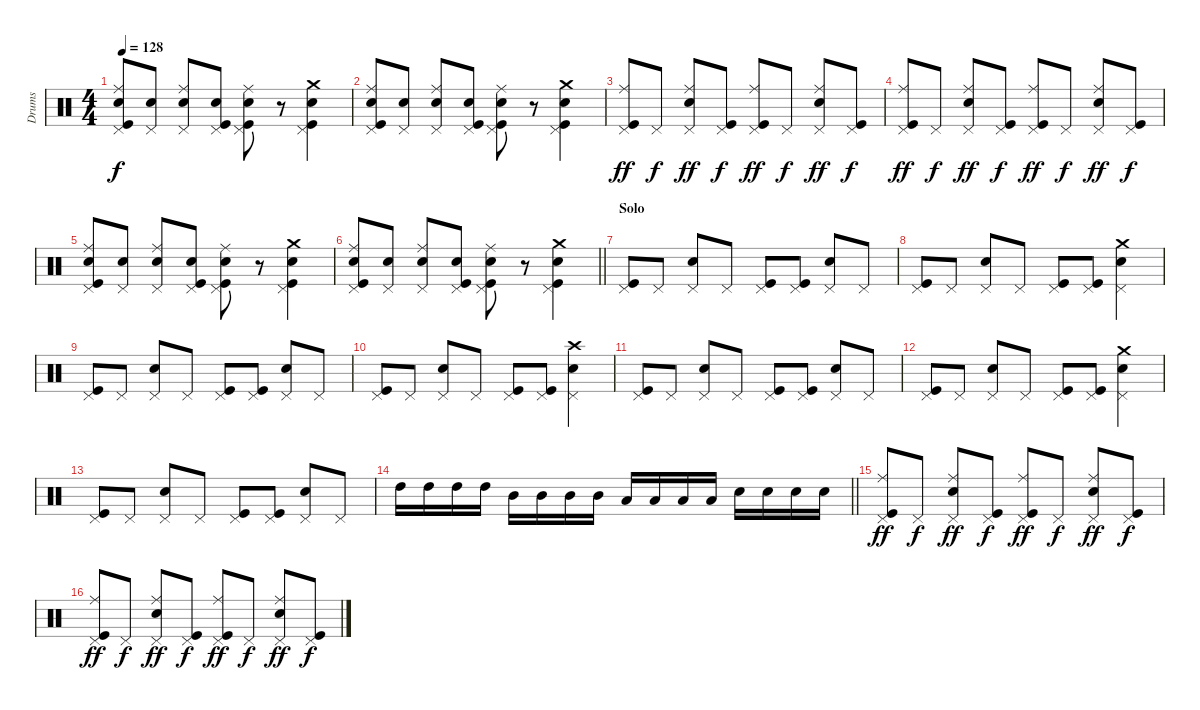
\track ("Drums" "Drums") {instrument percussion}
\staff {score}
\articulation defaults
\ts (4 4)
\tempo 128
\clef neutral
\ks c
("Ride (middle)" "Pedal Hi-Hat (hit)" "Snare (hit) 2" "Kick (hit)").8{dy f} ("Pedal Hi-Hat (hit)" "Snare (hit) 2").8 ("Ride (middle)" "Pedal Hi-Hat (hit)" "Snare (hit) 2").8 ("Pedal Hi-Hat (hit)" "Snare (hit) 2" "Kick (hit)").8 ("Ride (middle)" "Pedal Hi-Hat (hit)" "Snare (hit) 2" "Kick (hit)").8 r.8 ("Crash medium (hit)" "Pedal Hi-Hat (hit)" "Snare (hit) 2" "Kick (hit)").4 |
("Ride (middle)" "Pedal Hi-Hat (hit)" "Snare (hit) 2" "Kick (hit)").8 ("Pedal Hi-Hat (hit)" "Snare (hit) 2").8 ("Ride (middle)" "Pedal Hi-Hat (hit)" "Snare (hit) 2").8 ("Pedal Hi-Hat (hit)" "Snare (hit) 2" "Kick (hit)").8 ("Ride (middle)" "Pedal Hi-Hat (hit)" "Snare (hit) 2" "Kick (hit)").8 r.8 ("Crash medium (hit)" "Pedal Hi-Hat (hit)" "Snare (hit) 2" "Kick (hit)").4 |
("Ride (middle)" "Pedal Hi-Hat (hit)" "Kick (hit)").8{dy ff} "Pedal Hi-Hat (hit)".8{dy f} ("Ride (middle)" "Snare (hit) 2" "Pedal Hi-Hat (hit)").8{dy ff} ("Pedal Hi-Hat (hit)" "Kick (hit)").8{dy f} ("Ride (middle)" "Pedal Hi-Hat (hit)" "Kick (hit)").8{dy ff} "Pedal Hi-Hat (hit)".8{dy f} ("Ride (middle)" "Snare (hit) 2" "Pedal Hi-Hat (hit)").8{dy ff} ("Pedal Hi-Hat (hit)" "Kick (hit)").8{dy f} |
("Ride (middle)" "Pedal Hi-Hat (hit)" "Kick (hit)").8{dy ff} "Pedal Hi-Hat (hit)".8{dy f} ("Ride (middle)" "Snare (hit) 2" "Pedal Hi-Hat (hit)").8{dy ff} ("Pedal Hi-Hat (hit)" "Kick (hit)").8{dy f} ("Ride (middle)" "Pedal Hi-Hat (hit)" "Kick (hit)").8{dy ff} "Pedal Hi-Hat (hit)".8{dy f} ("Ride (middle)" "Snare (hit) 2" "Pedal Hi-Hat (hit)").8{dy ff} ("Pedal Hi-Hat (hit)" "Kick (hit)").8{dy f} |
("Ride (middle)" "Pedal Hi-Hat (hit)" "Snare (hit) 2" "Kick (hit)").8 ("Pedal Hi-Hat (hit)" "Snare (hit) 2").8 ("Ride (middle)" "Pedal Hi-Hat (hit)" "Snare (hit) 2").8 ("Pedal Hi-Hat (hit)" "Snare (hit) 2" "Kick (hit)").8 ("Ride (middle)" "Pedal Hi-Hat (hit)" "Snare (hit) 2" "Kick (hit)").8 r.8 ("Crash medium (hit)" "Pedal Hi-Hat (hit)" "Snare (hit) 2" "Kick (hit)").4 |
\barLineRight lightlight
("Ride (middle)" "Pedal Hi-Hat (hit)" "Snare (hit) 2" "Kick (hit)").8 ("Pedal Hi-Hat (hit)" "Snare (hit) 2").8 ("Ride (middle)" "Pedal Hi-Hat (hit)" "Snare (hit) 2").8 ("Pedal Hi-Hat (hit)" "Snare (hit) 2" "Kick (hit)").8 ("Ride (middle)" "Pedal Hi-Hat (hit)" "Snare (hit) 2" "Kick (hit)").8 r.8 ("Crash medium (hit)" "Pedal Hi-Hat (hit)" "Snare (hit) 2" "Kick (hit)").4 |
\section ("" "Solo")
("Pedal Hi-Hat (hit)" "Kick (hit)").8 "Pedal Hi-Hat (hit)".8 ("Snare (hit) 2" "Pedal Hi-Hat (hit)").8 "Pedal Hi-Hat (hit)".8 ("Pedal Hi-Hat (hit)" "Kick (hit)").8 ("Pedal Hi-Hat (hit)" "Kick (hit)").8 ("Snare (hit) 2" "Pedal Hi-Hat (hit)").8 "Pedal Hi-Hat (hit)".8 |
("Pedal Hi-Hat (hit)" "Kick (hit)").8 "Pedal Hi-Hat (hit)".8 ("Snare (hit) 2" "Pedal Hi-Hat (hit)").8 "Pedal Hi-Hat (hit)".8 ("Pedal Hi-Hat (hit)" "Kick (hit)").8 ("Pedal Hi-Hat (hit)" "Kick (hit)").8 ("Crash medium (hit)" "Snare (hit) 2" "Pedal Hi-Hat (hit)").4 |
("Pedal Hi-Hat (hit)" "Kick (hit)").8 "Pedal Hi-Hat (hit)".8 ("Snare (hit) 2" "Pedal Hi-Hat (hit)").8 "Pedal Hi-Hat (hit)".8 ("Pedal Hi-Hat (hit)" "Kick (hit)").8 ("Pedal Hi-Hat (hit)" "Kick (hit)").8 ("Snare (hit) 2" "Pedal Hi-Hat (hit)").8 "Pedal Hi-Hat (hit)".8 |
("Pedal Hi-Hat (hit)" "Kick (hit)").8 "Pedal Hi-Hat (hit)".8 ("Snare (hit) 2" "Pedal Hi-Hat (hit)").8 "Pedal Hi-Hat (hit)".8 ("Pedal Hi-Hat (hit)" "Kick (hit)").8 ("Pedal Hi-Hat (hit)" "Kick (hit)").8 ("Crash high (hit)" "Snare (hit) 2" "Pedal Hi-Hat (hit)").4 |
("Pedal Hi-Hat (hit)" "Kick (hit)").8 "Pedal Hi-Hat (hit)".8 ("Snare (hit) 2" "Pedal Hi-Hat (hit)").8 "Pedal Hi-Hat (hit)".8 ("Pedal Hi-Hat (hit)" "Kick (hit)").8 ("Pedal Hi-Hat (hit)" "Kick (hit)").8 ("Snare (hit) 2" "Pedal Hi-Hat (hit)").8 "Pedal Hi-Hat (hit)".8 |
("Pedal Hi-Hat (hit)" "Kick (hit)").8 "Pedal Hi-Hat (hit)".8 ("Snare (hit) 2" "Pedal Hi-Hat (hit)").8 "Pedal Hi-Hat (hit)".8 ("Pedal Hi-Hat (hit)" "Kick (hit)").8 ("Pedal Hi-Hat (hit)" "Kick (hit)").8 ("Crash medium (hit)" "Snare (hit) 2" "Pedal Hi-Hat (hit)").4 |
("Pedal Hi-Hat (hit)" "Kick (hit)").8 "Pedal Hi-Hat (hit)".8 ("Snare (hit) 2" "Pedal Hi-Hat (hit)").8 "Pedal Hi-Hat (hit)".8 ("Pedal Hi-Hat (hit)" "Kick (hit)").8 ("Pedal Hi-Hat (hit)" "Kick (hit)").8 ("Snare (hit) 2" "Pedal Hi-Hat (hit)").8 "Pedal Hi-Hat (hit)".8 |
\barLineRight lightlight "High Tom (hit)".16 "High Tom (hit)".16 "High Tom (hit)".16 "High Tom (hit)".16 "Mid Tom (hit)".16 "Mid Tom (hit)".16 "Mid Tom (hit)".16 "Mid Tom (hit)".16 "Low Tom (hit)".16 "Low Tom (hit)".16 "Low Tom (hit)".16 "Low Tom (hit)".16 "Snare (hit) 2".16 "Snare (hit) 2".16 "Snare (hit) 2".16 "Snare (hit) 2".16
|
("Ride (middle)" "Pedal Hi-Hat (hit)" "Kick (hit)").8{dy ff} "Pedal Hi-Hat (hit)".8{dy f} ("Ride (middle)" "Snare (hit) 2" "Pedal Hi-Hat (hit)").8{dy ff} ("Pedal Hi-Hat (hit)" "Kick (hit)").8{dy f} ("Ride (middle)" "Pedal Hi-Hat (hit)" "Kick (hit)").8{dy ff} "Pedal Hi-Hat (hit)".8{dy f} ("Ride (middle)" "Snare (hit) 2" "Pedal Hi-Hat (hit)").8{dy ff} ("Pedal Hi-Hat (hit)" "Kick (hit)").8{dy f} |
("Ride (middle)" "Pedal Hi-Hat (hit)" "Kick (hit)").8{dy ff} "Pedal Hi-Hat (hit)".8{dy f} ("Ride (middle)" "Snare (hit) 2" "Pedal Hi-Hat (hit)").8{dy ff} ("Pedal Hi-Hat (hit)" "Kick (hit)").8{dy f} ("Ride (middle)" "Pedal Hi-Hat (hit)" "Kick (hit)").8{dy ff} "Pedal Hi-Hat (hit)".8{dy f} ("Ride (middle)" "Snare (hit) 2" "Pedal Hi-Hat (hit)").8{dy ff} ("Pedal Hi-Hat (hit)" "Kick (hit)").8{dy f}
